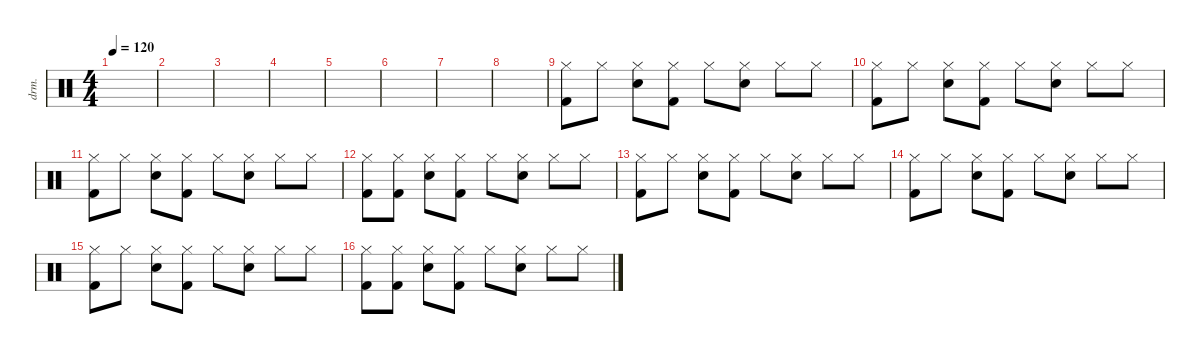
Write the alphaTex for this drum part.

\defaultSystemsLayout 4
\hideDynamics
\bracketExtendMode nobrackets
\otherSystemsTrackNameOrientation horizontal
\track ("Drumkit" "drm.") {instrument percussion}
\staff {score}
\articulation defaults
\ts (4 4)
\tempo 120
\clef neutral
\ks c
|
|
|
|
|
|
|
|
("Hi-Hat (closed)" "Kick (hit) 2").8{beam Down} "Hi-Hat (closed)".8{beam Down} ("Hi-Hat (closed)" "Snare (hit) 2").8{beam Down} ("Hi-Hat (closed)" "Kick (hit) 2").8{beam Down} "Hi-Hat (closed)".8{beam Down} ("Hi-Hat (closed)" "Snare (hit) 2").8{beam Down} "Hi-Hat (closed)".8{beam Down} "Hi-Hat (closed)".8{beam Down} |
("Hi-Hat (closed)" "Kick (hit) 2").8{beam Down} "Hi-Hat (closed)".8{beam Down} ("Hi-Hat (closed)" "Snare (hit) 2").8{beam Down} ("Hi-Hat (closed)" "Kick (hit) 2").8{beam Down} "Hi-Hat (closed)".8{beam Down} ("Hi-Hat (closed)" "Snare (hit) 2").8{beam Down} "Hi-Hat (closed)".8{beam Down} "Hi-Hat (closed)".8{beam Down} |
("Hi-Hat (closed)" "Kick (hit) 2").8{beam Down} "Hi-Hat (closed)".8{beam Down} ("Hi-Hat (closed)" "Snare (hit) 2").8{beam Down} ("Hi-Hat (closed)" "Kick (hit) 2").8{beam Down} "Hi-Hat (closed)".8{beam Down} ("Hi-Hat (closed)" "Snare (hit) 2").8{beam Down} "Hi-Hat (closed)".8{beam Down} "Hi-Hat (closed)".8{beam Down} |
("Hi-Hat (closed)" "Kick (hit) 2").8{beam Down} ("Hi-Hat (closed)" "Kick (hit) 2").8{beam Down} ("Hi-Hat (closed)" "Snare (hit) 2").8{beam Down} ("Hi-Hat (closed)" "Kick (hit) 2").8{beam Down} "Hi-Hat (closed)".8{beam Down} ("Hi-Hat (closed)" "Snare (hit) 2").8{beam Down} "Hi-Hat (closed)".8{beam Down} "Hi-Hat (closed)".8{beam Down} |
("Hi-Hat (closed)" "Kick (hit) 2").8{beam Down} "Hi-Hat (closed)".8{beam Down} ("Hi-Hat (closed)" "Snare (hit) 2").8{beam Down} ("Hi-Hat (closed)" "Kick (hit) 2").8{beam Down} "Hi-Hat (closed)".8{beam Down} ("Hi-Hat (closed)" "Snare (hit) 2").8{beam Down} "Hi-Hat (closed)".8{beam Down} "Hi-Hat (closed)".8{beam Down} |
("Hi-Hat (closed)" "Kick (hit) 2").8{beam Down} "Hi-Hat (closed)".8{beam Down} ("Hi-Hat (closed)" "Snare (hit) 2").8{beam Down} ("Hi-Hat (closed)" "Kick (hit) 2").8{beam Down} "Hi-Hat (closed)".8{beam Down} ("Hi-Hat (closed)" "Snare (hit) 2").8{beam Down} "Hi-Hat (closed)".8{beam Down} "Hi-Hat (closed)".8{beam Down} |
("Hi-Hat (closed)" "Kick (hit) 2").8{beam Down} "Hi-Hat (closed)".8{beam Down} ("Hi-Hat (closed)" "Snare (hit) 2").8{beam Down} ("Hi-Hat (closed)" "Kick (hit) 2").8{beam Down} "Hi-Hat (closed)".8{beam Down} ("Hi-Hat (closed)" "Snare (hit) 2").8{beam Down} "Hi-Hat (closed)".8{beam Down} "Hi-Hat (closed)".8{beam Down} |
("Hi-Hat (closed)" "Kick (hit) 2").8{beam Down} ("Hi-Hat (closed)" "Kick (hit) 2").8{beam Down} ("Hi-Hat (closed)" "Snare (hit) 2").8{beam Down} ("Hi-Hat (closed)" "Kick (hit) 2").8{beam Down} "Hi-Hat (closed)".8{beam Down} ("Hi-Hat (closed)" "Snare (hit) 2").8{beam Down} "Hi-Hat (closed)".8{beam Down} "Hi-Hat (closed)".8{beam Down}
